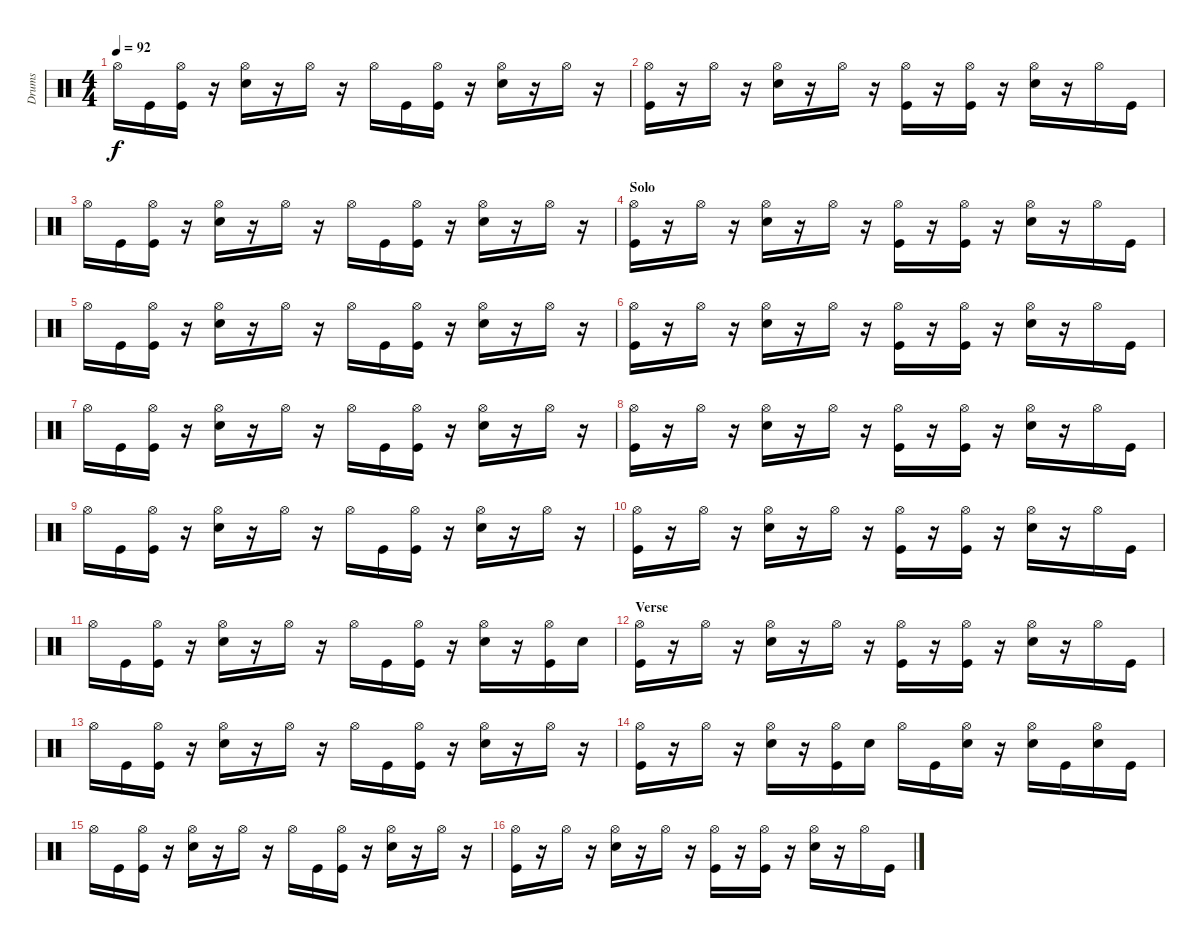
\track ("Drums" "Drums") {instrument percussion}
\staff {score}
\articulation defaults
\ts (4 4)
\tempo 92
\clef neutral
\ks c "Hi-Hat (open)".16{dy f} "Kick (hit)".16
("Hi-Hat (open)" "Kick (hit)").16 r.16 ("Hi-Hat (open)" "Snare (hit) 2").16 r.16 "Hi-Hat (open)".16 r.16 "Hi-Hat (open)".16 "Kick (hit)".16 ("Hi-Hat (open)" "Kick (hit)").16 r.16 ("Hi-Hat (open)" "Snare (hit) 2").16 r.16 "Hi-Hat (open)".16 r.16 |
("Hi-Hat (open)" "Kick (hit)").16 r.16 "Hi-Hat (open)".16 r.16 ("Hi-Hat (open)" "Snare (hit) 2").16 r.16 "Hi-Hat (open)".16 r.16 ("Hi-Hat (open)" "Kick (hit)").16 r.16 ("Hi-Hat (open)" "Kick (hit)").16 r.16 ("Hi-Hat (open)" "Snare (hit) 2").16 r.16 "Hi-Hat (open)".16 "Kick (hit)".16 |
"Hi-Hat (open)".16 "Kick (hit)".16 ("Hi-Hat (open)" "Kick (hit)").16 r.16 ("Hi-Hat (open)" "Snare (hit) 2").16 r.16 "Hi-Hat (open)".16 r.16 "Hi-Hat (open)".16 "Kick (hit)".16 ("Hi-Hat (open)" "Kick (hit)").16 r.16 ("Hi-Hat (open)" "Snare (hit) 2").16 r.16 "Hi-Hat (open)".16 r.16 |
\section ("" "Solo")
("Hi-Hat (open)" "Kick (hit)").16 r.16 "Hi-Hat (open)".16 r.16 ("Hi-Hat (open)" "Snare (hit) 2").16 r.16 "Hi-Hat (open)".16 r.16 ("Hi-Hat (open)" "Kick (hit)").16 r.16 ("Hi-Hat (open)" "Kick (hit)").16 r.16 ("Hi-Hat (open)" "Snare (hit) 2").16 r.16 "Hi-Hat (open)".16 "Kick (hit)".16 |
"Hi-Hat (open)".16 "Kick (hit)".16 ("Hi-Hat (open)" "Kick (hit)").16 r.16 ("Hi-Hat (open)" "Snare (hit) 2").16 r.16 "Hi-Hat (open)".16 r.16 "Hi-Hat (open)".16 "Kick (hit)".16 ("Hi-Hat (open)" "Kick (hit)").16 r.16 ("Hi-Hat (open)" "Snare (hit) 2").16 r.16 "Hi-Hat (open)".16 r.16 |
("Hi-Hat (open)" "Kick (hit)").16 r.16 "Hi-Hat (open)".16 r.16 ("Hi-Hat (open)" "Snare (hit) 2").16 r.16 "Hi-Hat (open)".16 r.16 ("Hi-Hat (open)" "Kick (hit)").16 r.16 ("Hi-Hat (open)" "Kick (hit)").16 r.16 ("Hi-Hat (open)" "Snare (hit) 2").16 r.16 "Hi-Hat (open)".16 "Kick (hit)".16 |
"Hi-Hat (open)".16 "Kick (hit)".16 ("Hi-Hat (open)" "Kick (hit)").16 r.16 ("Hi-Hat (open)" "Snare (hit) 2").16 r.16 "Hi-Hat (open)".16 r.16 "Hi-Hat (open)".16 "Kick (hit)".16 ("Hi-Hat (open)" "Kick (hit)").16 r.16 ("Hi-Hat (open)" "Snare (hit) 2").16 r.16 "Hi-Hat (open)".16 r.16 |
("Hi-Hat (open)" "Kick (hit)").16 r.16 "Hi-Hat (open)".16 r.16 ("Hi-Hat (open)" "Snare (hit) 2").16 r.16 "Hi-Hat (open)".16 r.16 ("Hi-Hat (open)" "Kick (hit)").16 r.16 ("Hi-Hat (open)" "Kick (hit)").16 r.16 ("Hi-Hat (open)" "Snare (hit) 2").16 r.16 "Hi-Hat (open)".16 "Kick (hit)".16 |
"Hi-Hat (open)".16 "Kick (hit)".16 ("Hi-Hat (open)" "Kick (hit)").16 r.16 ("Hi-Hat (open)" "Snare (hit) 2").16 r.16 "Hi-Hat (open)".16 r.16 "Hi-Hat (open)".16 "Kick (hit)".16 ("Hi-Hat (open)" "Kick (hit)").16 r.16 ("Hi-Hat (open)" "Snare (hit) 2").16 r.16 "Hi-Hat (open)".16 r.16 |
("Hi-Hat (open)" "Kick (hit)").16 r.16 "Hi-Hat (open)".16 r.16 ("Hi-Hat (open)" "Snare (hit) 2").16 r.16 "Hi-Hat (open)".16 r.16 ("Hi-Hat (open)" "Kick (hit)").16 r.16 ("Hi-Hat (open)" "Kick (hit)").16 r.16 ("Hi-Hat (open)" "Snare (hit) 2").16 r.16 "Hi-Hat (open)".16 "Kick (hit)".16 |
"Hi-Hat (open)".16 "Kick (hit)".16 ("Hi-Hat (open)" "Kick (hit)").16 r.16 ("Hi-Hat (open)" "Snare (hit) 2").16 r.16 "Hi-Hat (open)".16 r.16 "Hi-Hat (open)".16 "Kick (hit)".16 ("Hi-Hat (open)" "Kick (hit)").16 r.16 ("Hi-Hat (open)" "Snare (hit) 2").16 r.16 ("Hi-Hat (open)" "Kick (hit)").16 "Snare (hit) 2".16 |
\section ("" "Verse")
("Hi-Hat (open)" "Kick (hit)").16 r.16 "Hi-Hat (open)".16 r.16 ("Hi-Hat (open)" "Snare (hit) 2").16 r.16 "Hi-Hat (open)".16 r.16 ("Hi-Hat (open)" "Kick (hit)").16 r.16 ("Hi-Hat (open)" "Kick (hit)").16 r.16 ("Hi-Hat (open)" "Snare (hit) 2").16 r.16 "Hi-Hat (open)".16 "Kick (hit)".16 |
"Hi-Hat (open)".16 "Kick (hit)".16 ("Hi-Hat (open)" "Kick (hit)").16 r.16 ("Hi-Hat (open)" "Snare (hit) 2").16 r.16 "Hi-Hat (open)".16 r.16 "Hi-Hat (open)".16 "Kick (hit)".16 ("Hi-Hat (open)" "Kick (hit)").16 r.16 ("Hi-Hat (open)" "Snare (hit) 2").16 r.16 "Hi-Hat (open)".16 r.16 |
("Hi-Hat (open)" "Kick (hit)").16 r.16 "Hi-Hat (open)".16 r.16 ("Hi-Hat (open)" "Snare (hit) 2").16 r.16 ("Hi-Hat (open)" "Kick (hit)").16 "Snare (hit) 2".16 "Hi-Hat (open)".16 "Kick (hit)".16 ("Hi-Hat (open)" "Snare (hit) 2").16 r.16 ("Hi-Hat (open)" "Snare (hit) 2").16 "Kick (hit)".16 ("Hi-Hat (open)" "Snare (hit) 2").16 "Kick (hit)".16 |
"Hi-Hat (open)".16 "Kick (hit)".16 ("Hi-Hat (open)" "Kick (hit)").16 r.16 ("Hi-Hat (open)" "Snare (hit) 2").16 r.16 "Hi-Hat (open)".16 r.16 "Hi-Hat (open)".16 "Kick (hit)".16 ("Hi-Hat (open)" "Kick (hit)").16 r.16 ("Hi-Hat (open)" "Snare (hit) 2").16 r.16 "Hi-Hat (open)".16 r.16 |
("Hi-Hat (open)" "Kick (hit)").16 r.16 "Hi-Hat (open)".16 r.16 ("Hi-Hat (open)" "Snare (hit) 2").16 r.16 "Hi-Hat (open)".16 r.16 ("Hi-Hat (open)" "Kick (hit)").16 r.16 ("Hi-Hat (open)" "Kick (hit)").16 r.16 ("Hi-Hat (open)" "Snare (hit) 2").16 r.16 "Hi-Hat (open)".16 "Kick (hit)".16
